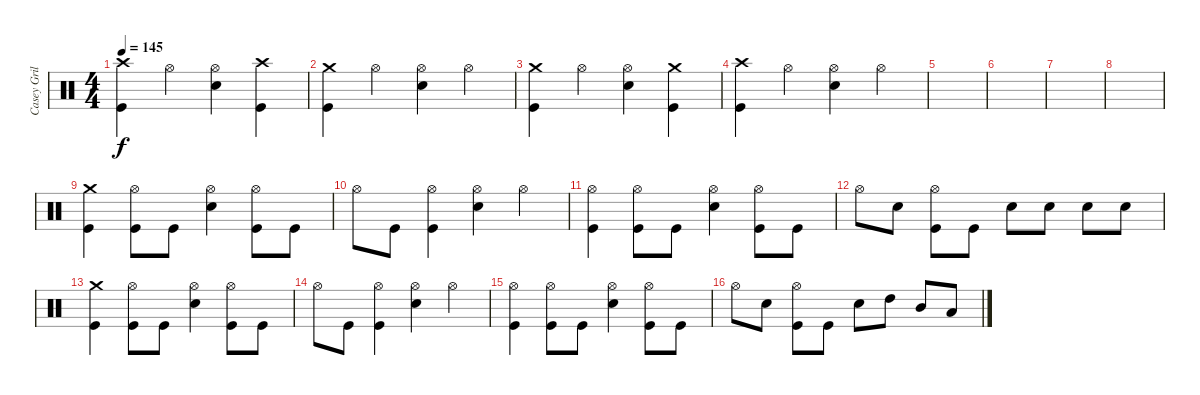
\track ("Casey Grillo" "Casey Gril") {instrument percussion}
\staff {score}
\articulation defaults
\ts (4 4)
\tempo 145
\clef neutral
\ks c
("Crash high (hit)" "Kick (hit)").4{dy f} "Hi-Hat (open)".4 ("Hi-Hat (open)" "Snare (hit) 2").4 ("Crash high (hit)" "Kick (hit)").4 |
("Crash medium (hit)" "Kick (hit)").4 "Hi-Hat (open)".4 ("Hi-Hat (open)" "Snare (hit) 2").4 "Hi-Hat (open)".4 |
("Crash medium (hit)" "Kick (hit)").4 "Hi-Hat (open)".4 ("Hi-Hat (open)" "Snare (hit) 2").4 ("Crash medium (hit)" "Kick (hit)").4 |
("Crash high (hit)" "Kick (hit)").4 "Hi-Hat (open)".4 ("Hi-Hat (open)" "Snare (hit) 2").4 "Hi-Hat (open)".4 |
|
|
|
|
("Crash medium (hit)" "Kick (hit)").4 ("Hi-Hat (open)" "Kick (hit)").8 "Kick (hit)".8 ("Hi-Hat (open)" "Snare (hit) 2").4 ("Hi-Hat (open)" "Kick (hit)").8 "Kick (hit)".8 |
"Hi-Hat (open)".8 "Kick (hit)".8 ("Hi-Hat (open)" "Kick (hit)").4 ("Hi-Hat (open)" "Snare (hit) 2").4 "Hi-Hat (open)".4 |
("Hi-Hat (open)" "Kick (hit)").4 ("Hi-Hat (open)" "Kick (hit)").8 "Kick (hit)".8 ("Hi-Hat (open)" "Snare (hit) 2").4 ("Hi-Hat (open)" "Kick (hit)").8 "Kick (hit)".8 |
"Hi-Hat (open)".8 "Snare (hit) 2".8 ("Hi-Hat (open)" "Kick (hit)").8 "Kick (hit)".8 "Snare (hit) 2".8 "Snare (hit) 2".8 "Snare (hit) 2".8 "Snare (hit) 2".8 |
("Crash medium (hit)" "Kick (hit)").4 ("Hi-Hat (open)" "Kick (hit)").8 "Kick (hit)".8 ("Hi-Hat (open)" "Snare (hit) 2").4 ("Hi-Hat (open)" "Kick (hit)").8 "Kick (hit)".8 |
"Hi-Hat (open)".8 "Kick (hit)".8 ("Hi-Hat (open)" "Kick (hit)").4 ("Hi-Hat (open)" "Snare (hit) 2").4 "Hi-Hat (open)".4 |
("Hi-Hat (open)" "Kick (hit)").4 ("Hi-Hat (open)" "Kick (hit)").8 "Kick (hit)".8 ("Hi-Hat (open)" "Snare (hit) 2").4 ("Hi-Hat (open)" "Kick (hit)").8 "Kick (hit)".8 |
"Hi-Hat (open)".8 "Snare (hit) 2".8 ("Hi-Hat (open)" "Kick (hit)").8 "Kick (hit)".8 "Snare (hit) 2".8 "High Tom (hit)".8 "Mid Tom (hit)".8 "Low Tom (hit)".8
